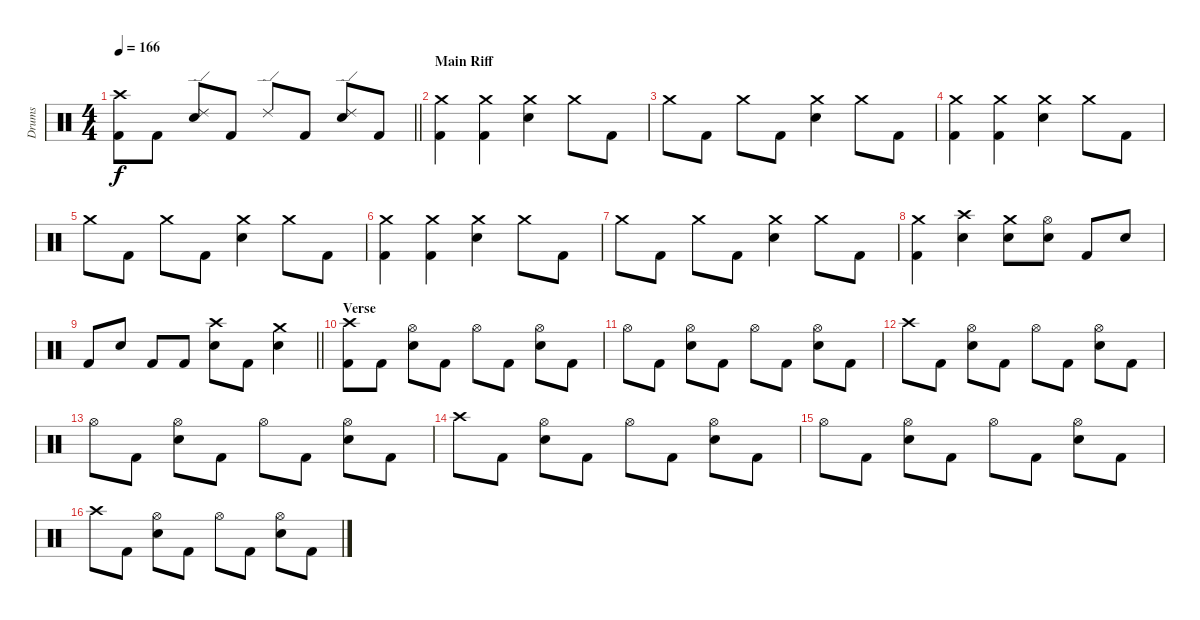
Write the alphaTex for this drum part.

\track ("Drums" "Drums") {instrument percussion}
\staff {score}
\articulation defaults
\ts (4 4)
\tempo 166
\clef neutral
\barLineRight lightlight
\ks c
("Crash high (hit)" "Kick (hit) 2").8{dy f} "Kick (hit) 2".8 ("Ride (edge) 2" "Electric Snare (hit)").8 "Kick (hit) 2".8 "Ride (edge) 2".8 "Kick (hit) 2".8 ("Ride (edge) 2" "Electric Snare (hit)").8 "Kick (hit) 2".8 |
\section ("" "Main Riff")
("Crash medium (hit)" "Kick (hit) 2").4 ("Crash medium (hit)" "Kick (hit) 2").4 ("Crash medium (hit)" "Electric Snare (hit)").4 "Crash medium (hit)".8 "Kick (hit) 2".8 |
"Crash medium (hit)".8 "Kick (hit) 2".8 "Crash medium (hit)".8 "Kick (hit) 2".8 ("Crash medium (hit)" "Electric Snare (hit)").4 "Crash medium (hit)".8 "Kick (hit) 2".8 |
("Crash medium (hit)" "Kick (hit) 2").4 ("Crash medium (hit)" "Kick (hit) 2").4 ("Crash medium (hit)" "Electric Snare (hit)").4 "Crash medium (hit)".8 "Kick (hit) 2".8 |
"Crash medium (hit)".8 "Kick (hit) 2".8 "Crash medium (hit)".8 "Kick (hit) 2".8 ("Crash medium (hit)" "Electric Snare (hit)").4 "Crash medium (hit)".8 "Kick (hit) 2".8 |
("Crash medium (hit)" "Kick (hit) 2").4 ("Crash medium (hit)" "Kick (hit) 2").4 ("Crash medium (hit)" "Electric Snare (hit)").4 "Crash medium (hit)".8 "Kick (hit) 2".8 |
"Crash medium (hit)".8 "Kick (hit) 2".8 "Crash medium (hit)".8 "Kick (hit) 2".8 ("Crash medium (hit)" "Electric Snare (hit)").4 "Crash medium (hit)".8 "Kick (hit) 2".8 |
("Crash medium (hit)" "Kick (hit) 2").4 ("Crash high (hit)" "Electric Snare (hit)").4 ("Crash medium (hit)" "Electric Snare (hit)").8 ("Hi-Hat (open)" "Electric Snare (hit)").8 "Kick (hit) 2".8 "Electric Snare (hit)".8 |
\barLineRight lightlight "Kick (hit) 2".8 "Electric Snare (hit)".8 "Kick (hit) 2".8 "Kick (hit) 2".8
("Crash high (hit)" "Electric Snare (hit)").8 "Kick (hit) 2".8 ("Crash medium (hit)" "Electric Snare (hit)").4 |
\section ("" "Verse")
("Crash high (hit)" "Kick (hit) 2").8 "Kick (hit) 2".8 ("Hi-Hat (open)" "Electric Snare (hit)").8 "Kick (hit) 2".8 "Hi-Hat (open)".8 "Kick (hit) 2".8 ("Hi-Hat (open)" "Electric Snare (hit)").8 "Kick (hit) 2".8 |
"Hi-Hat (open)".8 "Kick (hit) 2".8 ("Hi-Hat (open)" "Electric Snare (hit)").8 "Kick (hit) 2".8 "Hi-Hat (open)".8 "Kick (hit) 2".8 ("Hi-Hat (open)" "Electric Snare (hit)").8 "Kick (hit) 2".8 |
"Crash high (hit)".8 "Kick (hit) 2".8 ("Hi-Hat (open)" "Electric Snare (hit)").8 "Kick (hit) 2".8 "Hi-Hat (open)".8 "Kick (hit) 2".8 ("Hi-Hat (open)" "Electric Snare (hit)").8 "Kick (hit) 2".8 |
"Hi-Hat (open)".8 "Kick (hit) 2".8 ("Hi-Hat (open)" "Electric Snare (hit)").8 "Kick (hit) 2".8 "Hi-Hat (open)".8 "Kick (hit) 2".8 ("Hi-Hat (open)" "Electric Snare (hit)").8 "Kick (hit) 2".8 |
"Crash high (hit)".8 "Kick (hit) 2".8 ("Hi-Hat (open)" "Electric Snare (hit)").8 "Kick (hit) 2".8 "Hi-Hat (open)".8 "Kick (hit) 2".8 ("Hi-Hat (open)" "Electric Snare (hit)").8 "Kick (hit) 2".8 |
"Hi-Hat (open)".8 "Kick (hit) 2".8 ("Hi-Hat (open)" "Electric Snare (hit)").8 "Kick (hit) 2".8 "Hi-Hat (open)".8 "Kick (hit) 2".8 ("Hi-Hat (open)" "Electric Snare (hit)").8 "Kick (hit) 2".8 |
"Crash high (hit)".8 "Kick (hit) 2".8 ("Hi-Hat (open)" "Electric Snare (hit)").8 "Kick (hit) 2".8 "Hi-Hat (open)".8 "Kick (hit) 2".8 ("Hi-Hat (open)" "Electric Snare (hit)").8 "Kick (hit) 2".8
